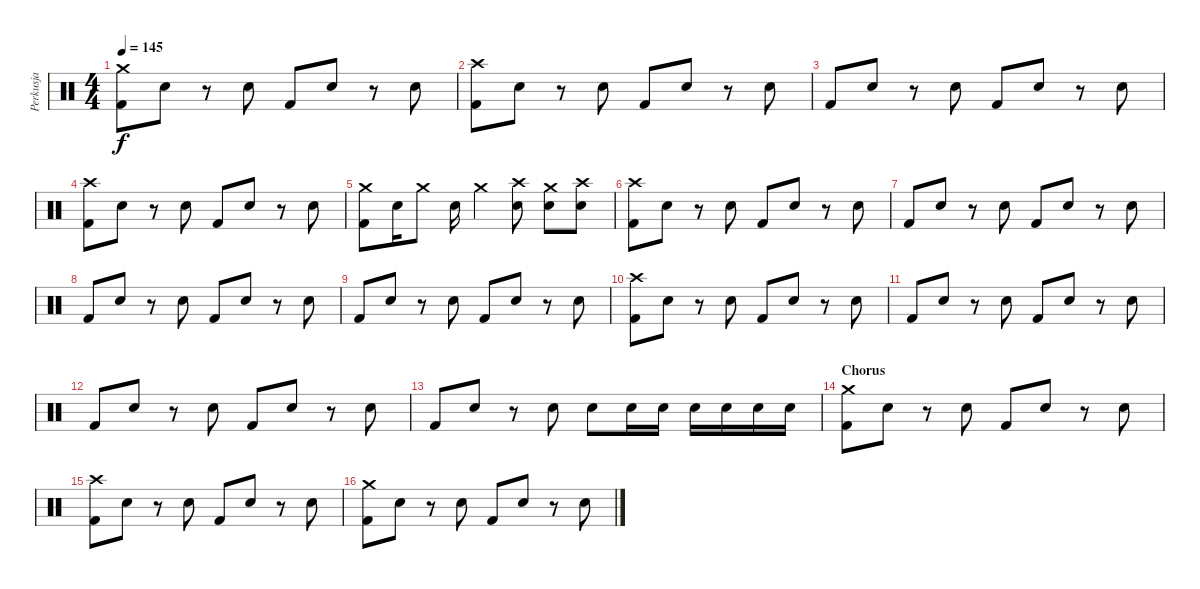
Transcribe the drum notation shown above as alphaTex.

\track ("Perkusja" "Perkusja") {instrument percussion}
\staff {score}
\articulation defaults
\ts (4 4)
\tempo 145
\clef neutral
\ks c
("Crash medium (hit)" "Kick (hit) 2").8{dy f} "Electric Snare (hit)".8 r.8 "Electric Snare (hit)".8 "Kick (hit) 2".8 "Electric Snare (hit)".8 r.8 "Electric Snare (hit)".8 |
("Crash high (hit)" "Kick (hit) 2").8 "Electric Snare (hit)".8 r.8 "Electric Snare (hit)".8 "Kick (hit) 2".8 "Electric Snare (hit)".8 r.8 "Electric Snare (hit)".8 |
"Kick (hit) 2".8 "Electric Snare (hit)".8 r.8 "Electric Snare (hit)".8 "Kick (hit) 2".8 "Electric Snare (hit)".8 r.8 "Electric Snare (hit)".8 |
("Crash high (hit)" "Kick (hit) 2").8 "Electric Snare (hit)".8 r.8 "Electric Snare (hit)".8 "Kick (hit) 2".8 "Electric Snare (hit)".8 r.8 "Electric Snare (hit)".8 |
("Crash medium (hit)" "Kick (hit) 2").8 "Electric Snare (hit)".16 "Crash medium (hit)".8 "Electric Snare (hit)".16 "Crash medium (hit)".4 ("Crash high (hit)" "Electric Snare (hit)").8 ("Crash medium (hit)" "Electric Snare (hit)").8 ("Crash high (hit)" "Electric Snare (hit)").8 |
("Crash high (hit)" "Kick (hit) 2").8 "Electric Snare (hit)".8 r.8 "Electric Snare (hit)".8 "Kick (hit) 2".8 "Electric Snare (hit)".8 r.8 "Electric Snare (hit)".8 |
"Kick (hit) 2".8 "Electric Snare (hit)".8 r.8 "Electric Snare (hit)".8 "Kick (hit) 2".8 "Electric Snare (hit)".8 r.8 "Electric Snare (hit)".8 |
"Kick (hit) 2".8 "Electric Snare (hit)".8 r.8 "Electric Snare (hit)".8 "Kick (hit) 2".8 "Electric Snare (hit)".8 r.8 "Electric Snare (hit)".8 |
"Kick (hit) 2".8 "Electric Snare (hit)".8 r.8 "Electric Snare (hit)".8 "Kick (hit) 2".8 "Electric Snare (hit)".8 r.8 "Electric Snare (hit)".8 |
("Crash high (hit)" "Kick (hit) 2").8 "Electric Snare (hit)".8 r.8 "Electric Snare (hit)".8 "Kick (hit) 2".8 "Electric Snare (hit)".8 r.8 "Electric Snare (hit)".8 |
"Kick (hit) 2".8 "Electric Snare (hit)".8 r.8 "Electric Snare (hit)".8 "Kick (hit) 2".8 "Electric Snare (hit)".8 r.8 "Electric Snare (hit)".8 |
"Kick (hit) 2".8 "Electric Snare (hit)".8 r.8 "Electric Snare (hit)".8 "Kick (hit) 2".8 "Electric Snare (hit)".8 r.8 "Electric Snare (hit)".8 |
"Kick (hit) 2".8 "Electric Snare (hit)".8 r.8 "Electric Snare (hit)".8 "Electric Snare (hit)".8 "Electric Snare (hit)".16 "Electric Snare (hit)".16 "Electric Snare (hit)".16 "Electric Snare (hit)".16 "Electric Snare (hit)".16 "Electric Snare (hit)".16 |
\section ("" "Chorus")
("Crash medium (hit)" "Kick (hit) 2").8 "Electric Snare (hit)".8 r.8 "Electric Snare (hit)".8 "Kick (hit) 2".8 "Electric Snare (hit)".8 r.8 "Electric Snare (hit)".8 |
("Crash high (hit)" "Kick (hit) 2").8 "Electric Snare (hit)".8 r.8 "Electric Snare (hit)".8 "Kick (hit) 2".8 "Electric Snare (hit)".8 r.8 "Electric Snare (hit)".8 |
("Crash medium (hit)" "Kick (hit) 2").8 "Electric Snare (hit)".8 r.8 "Electric Snare (hit)".8 "Kick (hit) 2".8 "Electric Snare (hit)".8 r.8 "Electric Snare (hit)".8
